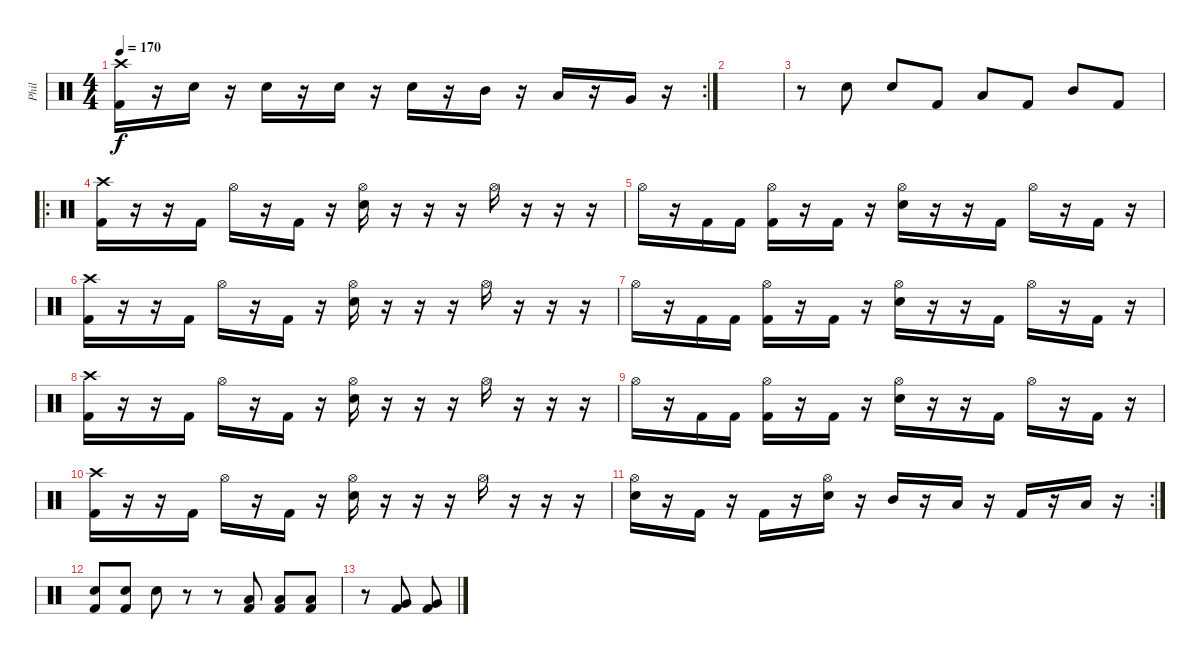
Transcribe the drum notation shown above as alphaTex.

\track ("Phil" "Phil") {instrument percussion}
\staff {score}
\articulation defaults
\rc 2
\ts (4 4)
\tempo 170
\clef neutral
\ks c
("Crash high (hit)" "Kick (hit) 2").16{dy f} r.16 "Electric Snare (hit)".16 r.16 "Electric Snare (hit)".16 r.16 "Electric Snare (hit)".16 r.16 "Electric Snare (hit)".16 r.16 "Mid Tom (hit)".16 r.16 "Low Tom (hit)".16 r.16 "Very Low Tom (hit)".16 r.16 |
|
r.8 "Electric Snare (hit)".8 "Electric Snare (hit)".8 "Kick (hit) 2".8 "Low Tom (hit)".8 "Kick (hit) 2".8 "Mid Tom (hit)".8 "Kick (hit) 2".8 |
\ro
("Crash high (hit)" "Kick (hit) 2").16 r.16 r.16 "Kick (hit) 2".16 "Hi-Hat (open)".16 r.16 "Kick (hit) 2".16 r.16 ("Hi-Hat (open)" "Electric Snare (hit)").16 r.16 r.16 r.16 "Hi-Hat (open)".16 r.16 r.16 r.16 |
"Hi-Hat (open)".16 r.16 "Kick (hit) 2".16 "Kick (hit) 2".16 ("Hi-Hat (open)" "Kick (hit) 2").16 r.16 "Kick (hit) 2".16 r.16 ("Hi-Hat (open)" "Electric Snare (hit)").16 r.16 r.16 "Kick (hit) 2".16 "Hi-Hat (open)".16 r.16 "Kick (hit) 2".16 r.16 |
("Crash high (hit)" "Kick (hit) 2").16 r.16 r.16 "Kick (hit) 2".16 "Hi-Hat (open)".16 r.16 "Kick (hit) 2".16 r.16 ("Hi-Hat (open)" "Electric Snare (hit)").16 r.16 r.16 r.16 "Hi-Hat (open)".16 r.16 r.16 r.16 |
"Hi-Hat (open)".16 r.16 "Kick (hit) 2".16 "Kick (hit) 2".16 ("Hi-Hat (open)" "Kick (hit) 2").16 r.16 "Kick (hit) 2".16 r.16 ("Hi-Hat (open)" "Electric Snare (hit)").16 r.16 r.16 "Kick (hit) 2".16 "Hi-Hat (open)".16 r.16 "Kick (hit) 2".16 r.16 |
("Crash high (hit)" "Kick (hit) 2").16 r.16 r.16 "Kick (hit) 2".16 "Hi-Hat (open)".16 r.16 "Kick (hit) 2".16 r.16 ("Hi-Hat (open)" "Electric Snare (hit)").16 r.16 r.16 r.16 "Hi-Hat (open)".16 r.16 r.16 r.16 |
"Hi-Hat (open)".16 r.16 "Kick (hit) 2".16 "Kick (hit) 2".16 ("Hi-Hat (open)" "Kick (hit) 2").16 r.16 "Kick (hit) 2".16 r.16 ("Hi-Hat (open)" "Electric Snare (hit)").16 r.16 r.16 "Kick (hit) 2".16 "Hi-Hat (open)".16 r.16 "Kick (hit) 2".16 r.16 |
("Crash high (hit)" "Kick (hit) 2").16 r.16 r.16 "Kick (hit) 2".16 "Hi-Hat (open)".16 r.16 "Kick (hit) 2".16 r.16 ("Hi-Hat (open)" "Electric Snare (hit)").16 r.16 r.16 r.16 "Hi-Hat (open)".16 r.16 r.16 r.16 |
\rc 2
("Hi-Hat (open)" "Electric Snare (hit)").16 r.16 "Kick (hit) 2".16 r.16 "Kick (hit) 2".16 r.16 ("Hi-Hat (open)" "Electric Snare (hit)").16 r.16 "Mid Tom (hit)".16 r.16 "Low Tom (hit)".16 r.16 "Kick (hit) 2".16 r.16 "Low Tom (hit)".16 r.16 |
("Electric Snare (hit)" "Kick (hit) 2").8 ("Electric Snare (hit)" "Kick (hit) 2").8 "Electric Snare (hit)".8 r.8 r.8 ("Low Tom (hit)" "Kick (hit) 2").8 ("Low Tom (hit)" "Kick (hit) 2").8 ("Low Tom (hit)" "Kick (hit) 2").8 |
r.8 ("Very Low Tom (hit)" "Kick (hit) 2").8 ("Very Low Tom (hit)" "Kick (hit) 2").8
